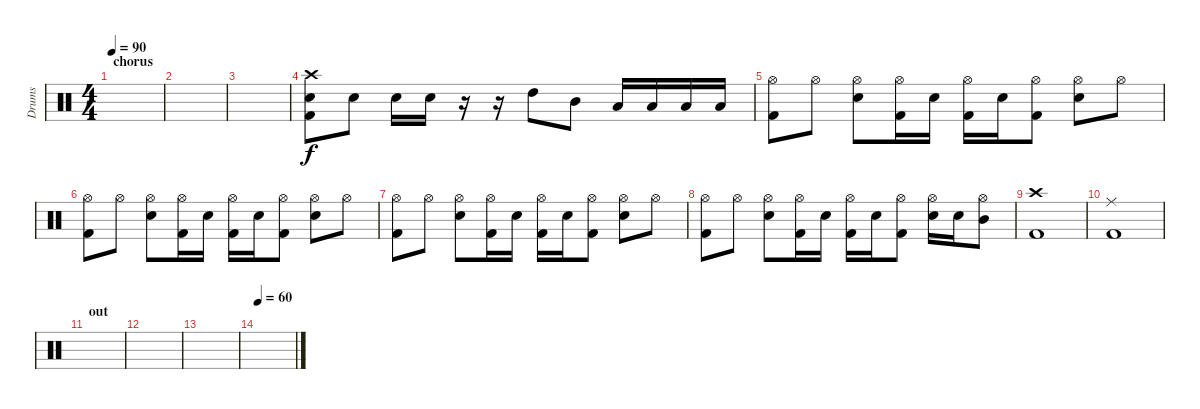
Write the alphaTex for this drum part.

\track ("Drums" "Drums") {instrument percussion}
\staff {score}
\articulation defaults
\ts (4 4)
\section ("" "chorus")
\tempo 90
\clef neutral
\ks c
|
|
|
("Crash high (hit)" "Snare (hit) 2" "Kick (hit) 2").8 "Snare (hit) 2".8 "Snare (hit) 2".16 "Snare (hit) 2".16 r.16 r.16 "High Tom (hit)".8 "Mid Tom (hit)".8 "Low Tom (hit)".16 "Low Tom (hit)".16 "Low Tom (hit)".16 "Low Tom (hit)".16 |
("Hi-Hat (open)" "Kick (hit) 2").8 "Hi-Hat (open)".8 ("Hi-Hat (open)" "Snare (hit) 2").8 ("Hi-Hat (open)" "Kick (hit) 2").16 "Snare (hit) 2".16 ("Hi-Hat (open)" "Kick (hit) 2").16 "Snare (hit) 2".16 ("Hi-Hat (open)" "Kick (hit) 2").8 ("Hi-Hat (open)" "Snare (hit) 2").8 "Hi-Hat (open)".8 |
("Hi-Hat (open)" "Kick (hit) 2").8 "Hi-Hat (open)".8 ("Hi-Hat (open)" "Snare (hit) 2").8 ("Hi-Hat (open)" "Kick (hit) 2").16 "Snare (hit) 2".16 ("Hi-Hat (open)" "Kick (hit) 2").16 "Snare (hit) 2".16 ("Hi-Hat (open)" "Kick (hit) 2").8 ("Hi-Hat (open)" "Snare (hit) 2").8 "Hi-Hat (open)".8 |
("Hi-Hat (open)" "Kick (hit) 2").8 "Hi-Hat (open)".8 ("Hi-Hat (open)" "Snare (hit) 2").8 ("Hi-Hat (open)" "Kick (hit) 2").16 "Snare (hit) 2".16 ("Hi-Hat (open)" "Kick (hit) 2").16 "Snare (hit) 2".16 ("Hi-Hat (open)" "Kick (hit) 2").8 ("Hi-Hat (open)" "Snare (hit) 2").8 "Hi-Hat (open)".8 |
("Hi-Hat (open)" "Kick (hit) 2").8 "Hi-Hat (open)".8 ("Hi-Hat (open)" "Snare (hit) 2").8 ("Hi-Hat (open)" "Kick (hit) 2").16 "Snare (hit) 2".16 ("Hi-Hat (open)" "Kick (hit) 2").16 "Snare (hit) 2".16 ("Hi-Hat (open)" "Kick (hit) 2").8 ("Hi-Hat (open)" "Snare (hit) 2").16 "Snare (hit) 2".16 ("Hi-Hat (open)" "Mid Tom (hit)").8 |
("Crash high (hit)" "Kick (hit) 2").1 |
("Ride (middle)" "Kick (hit) 2").1 |
\section ("" "out")
|
|
|
\tempo 60
